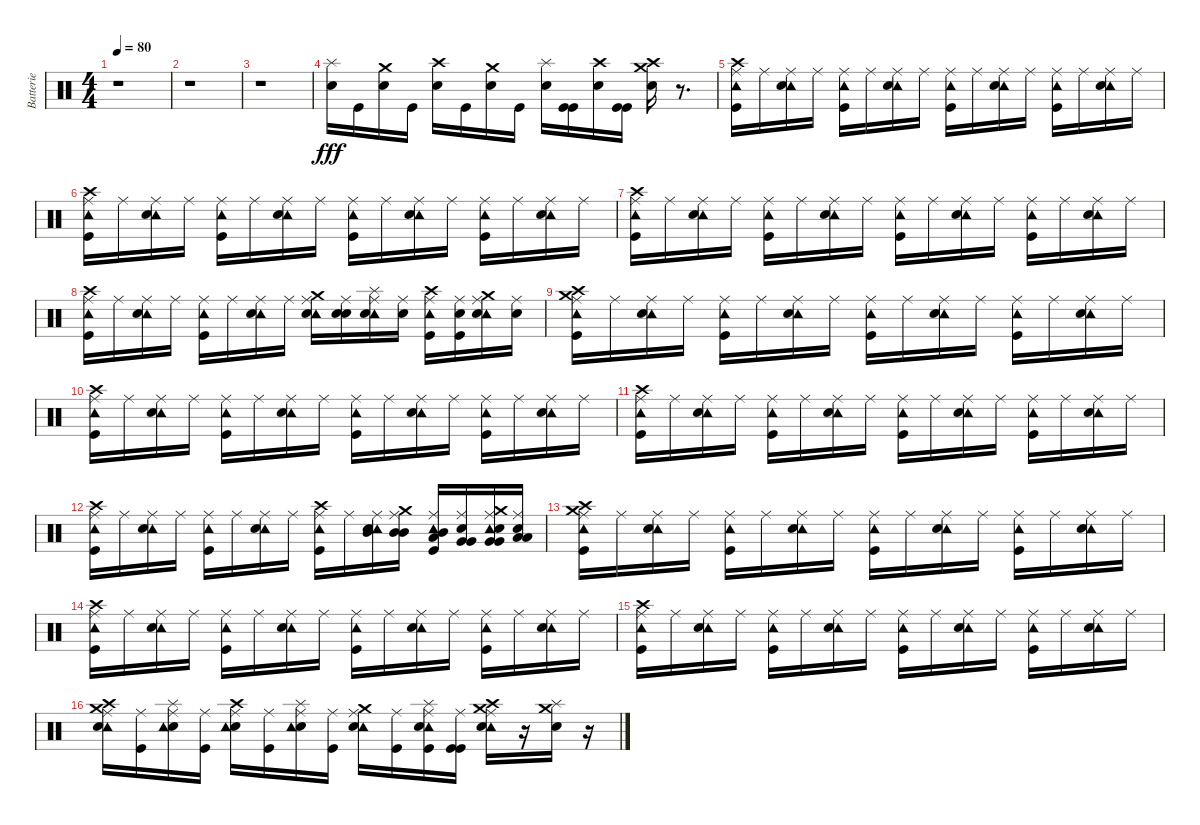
\track ("Batterie" "Batterie") {instrument percussion}
\staff {score}
\articulation defaults
\ts (4 4)
\tempo 80
\clef neutral
\ks c
r.1{dy fff} |
r.1 |
r.1 |
("Metronome (bell)" "Splash (hit)").16 "Kick (hit)".16 ("Metronome (bell)" "Crash medium (hit)").16 "Kick (hit)".16 ("Metronome (bell)" "Crash high (hit)").16 "Kick (hit)".16 ("Metronome (bell)" "Crash medium (hit)").16 "Kick (hit)".16 ("Metronome (bell)" "Splash (hit)").16 ("Kick (hit)" "Kick (hit)").16 ("Metronome (bell)" "Crash high (hit)").16 ("Kick (hit)" "Kick (hit)").16 ("Metronome (bell)" "Crash medium (hit)" "Crash high (hit)").16 r.8{d} |
("Kick (hit)" "Ride (middle)" "Tambourine (hit)" "Crash high (hit)").16 "Ride (middle)".16 ("Ride (middle)" "Tambourine (hit)" "Metronome (bell)").16 "Ride (middle)".16 ("Kick (hit)" "Ride (middle)" "Tambourine (hit)").16 "Ride (middle)".16 ("Ride (middle)" "Tambourine (hit)" "Metronome (bell)").16 "Ride (middle)".16 ("Kick (hit)" "Ride (middle)" "Tambourine (hit)").16 "Ride (middle)".16 ("Ride (middle)" "Tambourine (hit)" "Metronome (bell)").16 "Ride (middle)".16 ("Kick (hit)" "Ride (middle)" "Tambourine (hit)").16 "Ride (middle)".16 ("Ride (middle)" "Tambourine (hit)" "Metronome (bell)").16 "Ride (middle)".16 |
("Ride (middle)" "Tambourine (hit)" "Kick (hit)" "Crash high (hit)").16 "Ride (middle)".16 ("Ride (middle)" "Tambourine (hit)" "Metronome (bell)").16 "Ride (middle)".16 ("Ride (middle)" "Tambourine (hit)" "Kick (hit)").16 "Ride (middle)".16 ("Ride (middle)" "Tambourine (hit)" "Metronome (bell)").16 "Ride (middle)".16 ("Ride (middle)" "Tambourine (hit)" "Kick (hit)").16 "Ride (middle)".16 ("Ride (middle)" "Tambourine (hit)" "Metronome (bell)").16 "Ride (middle)".16 ("Ride (middle)" "Tambourine (hit)" "Kick (hit)").16 "Ride (middle)".16 ("Ride (middle)" "Tambourine (hit)" "Metronome (bell)").16 "Ride (middle)".16 |
("Ride (middle)" "Tambourine (hit)" "Kick (hit)" "Crash high (hit)").16 "Ride (middle)".16 ("Ride (middle)" "Tambourine (hit)" "Metronome (bell)").16 "Ride (middle)".16 ("Ride (middle)" "Tambourine (hit)" "Kick (hit)").16 "Ride (middle)".16 ("Ride (middle)" "Tambourine (hit)" "Metronome (bell)").16 "Ride (middle)".16 ("Ride (middle)" "Tambourine (hit)" "Kick (hit)").16 "Ride (middle)".16 ("Ride (middle)" "Tambourine (hit)" "Metronome (bell)").16 "Ride (middle)".16 ("Ride (middle)" "Tambourine (hit)" "Kick (hit)").16 "Ride (middle)".16 ("Ride (middle)" "Tambourine (hit)" "Metronome (bell)").16 "Ride (middle)".16 |
("Kick (hit)" "Ride (middle)" "Tambourine (hit)" "Crash high (hit)").16 "Ride (middle)".16 ("Ride (middle)" "Tambourine (hit)" "Metronome (bell)").16 "Ride (middle)".16 ("Ride (middle)" "Tambourine (hit)" "Kick (hit)").16 "Ride (middle)".16 ("Ride (middle)" "Tambourine (hit)" "Metronome (bell)").16 "Ride (middle)".16 ("Ride (middle)" "Tambourine (hit)" "Metronome (bell)" "Crash medium (hit)").16 ("Metronome (bell)" "Ride (middle)" "Metronome (bell)").16 ("Ride (middle)" "Tambourine (hit)" "Metronome (bell)" "Splash (hit)").16 ("Ride (middle)" "Metronome (bell)").16 ("Ride (middle)" "Tambourine (hit)" "Kick (hit)" "Crash high (hit)").16 ("Kick (hit)" "Ride (middle)" "Metronome (bell)").16 ("Ride (middle)" "Tambourine (hit)" "Crash medium (hit)" "Metronome (bell)").16 ("Ride (middle)" "Metronome (bell)").16 |
("Tambourine (hit)" "Ride (middle)" "Kick (hit)" "Crash medium (hit)" "Crash high (hit)").16 "Ride (middle)".16 ("Ride (middle)" "Tambourine (hit)" "Metronome (bell)").16 "Ride (middle)".16 ("Kick (hit)" "Ride (middle)" "Tambourine (hit)").16 "Ride (middle)".16 ("Ride (middle)" "Tambourine (hit)" "Metronome (bell)").16 "Ride (middle)".16 ("Kick (hit)" "Ride (middle)" "Tambourine (hit)").16 "Ride (middle)".16 ("Ride (middle)" "Tambourine (hit)" "Metronome (bell)").16 "Ride (middle)".16 ("Kick (hit)" "Ride (middle)" "Tambourine (hit)").16 "Ride (middle)".16 ("Ride (middle)" "Tambourine (hit)" "Metronome (bell)").16 "Ride (middle)".16 |
("Ride (middle)" "Tambourine (hit)" "Kick (hit)" "Crash high (hit)").16 "Ride (middle)".16 ("Ride (middle)" "Tambourine (hit)" "Metronome (bell)").16 "Ride (middle)".16 ("Ride (middle)" "Tambourine (hit)" "Kick (hit)").16 "Ride (middle)".16 ("Ride (middle)" "Tambourine (hit)" "Metronome (bell)").16 "Ride (middle)".16 ("Ride (middle)" "Tambourine (hit)" "Kick (hit)").16 "Ride (middle)".16 ("Ride (middle)" "Tambourine (hit)" "Metronome (bell)").16 "Ride (middle)".16 ("Ride (middle)" "Tambourine (hit)" "Kick (hit)").16 "Ride (middle)".16 ("Ride (middle)" "Tambourine (hit)" "Metronome (bell)").16 "Ride (middle)".16 |
("Ride (middle)" "Tambourine (hit)" "Kick (hit)" "Crash high (hit)").16 "Ride (middle)".16 ("Ride (middle)" "Tambourine (hit)" "Metronome (bell)").16 "Ride (middle)".16 ("Ride (middle)" "Tambourine (hit)" "Kick (hit)").16 "Ride (middle)".16 ("Ride (middle)" "Tambourine (hit)" "Metronome (bell)").16 "Ride (middle)".16 ("Ride (middle)" "Tambourine (hit)" "Kick (hit)").16 "Ride (middle)".16 ("Ride (middle)" "Tambourine (hit)" "Metronome (bell)").16 "Ride (middle)".16 ("Ride (middle)" "Tambourine (hit)" "Kick (hit)").16 "Ride (middle)".16 ("Ride (middle)" "Tambourine (hit)" "Metronome (bell)").16 "Ride (middle)".16 |
("Kick (hit)" "Ride (middle)" "Tambourine (hit)" "Crash high (hit)").16 "Ride (middle)".16 ("Ride (middle)" "Tambourine (hit)" "Metronome (bell)").16 "Ride (middle)".16 ("Kick (hit)" "Ride (middle)" "Tambourine (hit)").16 "Ride (middle)".16 ("Ride (middle)" "Tambourine (hit)" "Metronome (bell)").16 "Ride (middle)".16 ("Kick (hit)" "Ride (middle)" "Tambourine (hit)" "Crash high (hit)").16 "Ride (middle)".16 ("Ride (middle)" "Tambourine (hit)" "Metronome (bell)" "Mid Tom (hit)").16 ("Mid Tom (hit)" "Ride (middle)" "Crash medium (hit)" "Mid Tom (hit)").16 ("Mid Tom (hit)" "Kick (hit)" "Ride (middle)" "Tambourine (hit)" "Low Tom (hit)").16 ("Very Low Tom (hit)" "Ride (middle)" "Metronome (bell)" "Very Low Tom (hit)").16 ("Very Low Tom (hit)" "Ride (middle)" "Tambourine (hit)" "Crash medium (hit)" "Metronome (bell)" "Very Low Tom (hit)").16 ("Low Floor Tom (hit)" "Ride (middle)" "Metronome (bell)" "Low Floor Tom (hit)").16 |
("Crash medium (hit)" "Kick (hit)" "Ride (middle)" "Tambourine (hit)" "Crash high (hit)").16 "Ride (middle)".16 ("Ride (middle)" "Tambourine (hit)" "Metronome (bell)").16 "Ride (middle)".16 ("Kick (hit)" "Ride (middle)" "Tambourine (hit)").16 "Ride (middle)".16 ("Ride (middle)" "Tambourine (hit)" "Metronome (bell)").16 "Ride (middle)".16 ("Kick (hit)" "Ride (middle)" "Tambourine (hit)").16 "Ride (middle)".16 ("Ride (middle)" "Tambourine (hit)" "Metronome (bell)").16 "Ride (middle)".16 ("Kick (hit)" "Ride (middle)" "Tambourine (hit)").16 "Ride (middle)".16 ("Ride (middle)" "Tambourine (hit)" "Metronome (bell)").16 "Ride (middle)".16 |
("Ride (middle)" "Tambourine (hit)" "Kick (hit)" "Crash high (hit)").16 "Ride (middle)".16 ("Ride (middle)" "Tambourine (hit)" "Metronome (bell)").16 "Ride (middle)".16 ("Ride (middle)" "Tambourine (hit)" "Kick (hit)").16 "Ride (middle)".16 ("Ride (middle)" "Tambourine (hit)" "Metronome (bell)").16 "Ride (middle)".16 ("Ride (middle)" "Tambourine (hit)" "Kick (hit)").16 "Ride (middle)".16 ("Ride (middle)" "Tambourine (hit)" "Metronome (bell)").16 "Ride (middle)".16 ("Ride (middle)" "Tambourine (hit)" "Kick (hit)").16 "Ride (middle)".16 ("Ride (middle)" "Tambourine (hit)" "Metronome (bell)").16 "Ride (middle)".16 |
("Ride (middle)" "Tambourine (hit)" "Kick (hit)" "Crash high (hit)").16 "Ride (middle)".16 ("Ride (middle)" "Tambourine (hit)" "Metronome (bell)").16 "Ride (middle)".16 ("Ride (middle)" "Tambourine (hit)" "Kick (hit)").16 "Ride (middle)".16 ("Ride (middle)" "Tambourine (hit)" "Metronome (bell)").16 "Ride (middle)".16 ("Ride (middle)" "Tambourine (hit)" "Kick (hit)").16 "Ride (middle)".16 ("Ride (middle)" "Tambourine (hit)" "Metronome (bell)").16 "Ride (middle)".16 ("Ride (middle)" "Tambourine (hit)" "Kick (hit)").16 "Ride (middle)".16 ("Ride (middle)" "Tambourine (hit)" "Metronome (bell)").16 "Ride (middle)".16 |
("Ride (middle)" "Tambourine (hit)" "Crash medium (hit)" "Metronome (bell)" "Crash high (hit)").16 ("Kick (hit)" "Ride (middle)").16 ("Ride (middle)" "Metronome (bell)" "Tambourine (hit)" "Splash (hit)").16 ("Ride (middle)" "Kick (hit)").16 ("Ride (middle)" "Metronome (bell)" "Tambourine (hit)" "Crash high (hit)").16 ("Ride (middle)" "Kick (hit)").16 ("Ride (middle)" "Metronome (bell)" "Tambourine (hit)" "Splash (hit)").16 ("Ride (middle)" "Kick (hit)").16 ("Ride (middle)" "Tambourine (hit)" "Metronome (bell)" "Crash medium (hit)").16 ("Kick (hit)" "Ride (middle)").16 ("Kick (hit)" "Ride (middle)" "Tambourine (hit)" "Splash (hit)" "Metronome (bell)").16 ("Kick (hit)" "Ride (middle)" "Kick (hit)").16 ("Ride (middle)" "Tambourine (hit)" "Crash medium (hit)" "Metronome (bell)" "Crash high (hit)").16 r.16 ("Crash medium (hit)" "Splash (hit)" "Metronome (bell)").16 r.16
